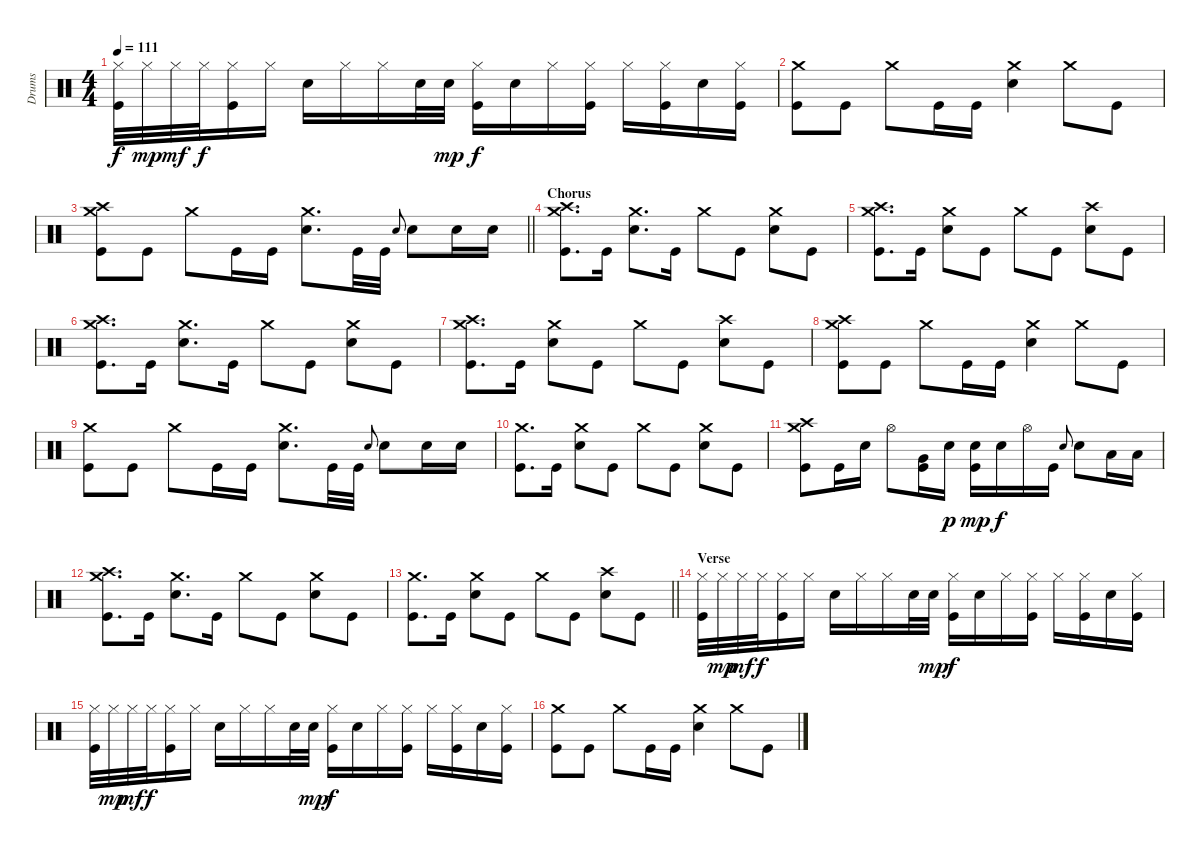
\track ("Drums" "Drums") {instrument percussion}
\staff {score}
\articulation defaults
\ts (4 4)
\tempo 111
\clef neutral
\ks c
("Hi-Hat (closed)" "Kick (hit)").32{dy f} "Hi-Hat (closed)".32{dy mp} "Hi-Hat (closed)".32{dy mf} "Hi-Hat (closed)".32{dy f} ("Hi-Hat (closed)" "Kick (hit)").16 "Hi-Hat (closed)".16 "Electric Snare (hit)".16 "Hi-Hat (closed)".16 "Hi-Hat (closed)".16 "Electric Snare (hit)".32 "Electric Snare (hit)".32{dy mp} ("Hi-Hat (closed)" "Kick (hit)").16{dy f} "Electric Snare (hit)".16 "Hi-Hat (closed)".16 ("Hi-Hat (closed)" "Kick (hit)").16 "Hi-Hat (closed)".16 ("Hi-Hat (closed)" "Kick (hit)").16 "Electric Snare (hit)".16 ("Hi-Hat (closed)" "Kick (hit)").16 |
("Crash medium (hit)" "Kick (hit)").8 "Kick (hit)".8 "Crash medium (hit)".8 "Kick (hit)".16 "Kick (hit)".16 ("Crash medium (hit)" "Electric Snare (hit)").4 "Crash medium (hit)".8 "Kick (hit)".8 |
\barLineRight lightlight
("Crash medium (hit)" "Crash high (hit)" "Kick (hit)").8 "Kick (hit)".8 "Crash medium (hit)".8 "Kick (hit)".16 "Kick (hit)".16 ("Crash medium (hit)" "Electric Snare (hit)").8{d} "Kick (hit)".32 "Kick (hit)".32 "Electric Snare (hit)".8{gr onbeat} "Electric Snare (hit)".8 "Electric Snare (hit)".16 "Electric Snare (hit)".16 |
\section ("" "Chorus")
("Crash medium (hit)" "Crash high (hit)" "Kick (hit)").8{d} "Kick (hit)".16 ("Crash medium (hit)" "Electric Snare (hit)").8{d} "Kick (hit)".16 "Crash medium (hit)".8 "Kick (hit)".8 ("Crash medium (hit)" "Electric Snare (hit)").8 "Kick (hit)".8 |
("Crash medium (hit)" "Crash high (hit)" "Kick (hit)").8{d} "Kick (hit)".16 ("Crash medium (hit)" "Electric Snare (hit)").8 "Kick (hit)".8 "Crash medium (hit)".8 "Kick (hit)".8 ("Crash high (hit)" "Electric Snare (hit)").8 "Kick (hit)".8 |
("Crash medium (hit)" "Crash high (hit)" "Kick (hit)").8{d} "Kick (hit)".16 ("Crash medium (hit)" "Electric Snare (hit)").8{d} "Kick (hit)".16 "Crash medium (hit)".8 "Kick (hit)".8 ("Crash medium (hit)" "Electric Snare (hit)").8 "Kick (hit)".8 |
("Crash medium (hit)" "Crash high (hit)" "Kick (hit)").8{d} "Kick (hit)".16 ("Crash medium (hit)" "Electric Snare (hit)").8 "Kick (hit)".8 "Crash medium (hit)".8 "Kick (hit)".8 ("Crash high (hit)" "Electric Snare (hit)").8 "Kick (hit)".8 |
("Crash medium (hit)" "Crash high (hit)" "Kick (hit)").8 "Kick (hit)".8 "Crash medium (hit)".8 "Kick (hit)".16 "Kick (hit)".16 ("Crash medium (hit)" "Electric Snare (hit)").4 "Crash medium (hit)".8 "Kick (hit)".8 |
("Crash medium (hit)" "Kick (hit)").8 "Kick (hit)".8 "Crash medium (hit)".8 "Kick (hit)".16 "Kick (hit)".16 ("Crash medium (hit)" "Electric Snare (hit)").8{d} "Kick (hit)".32 "Kick (hit)".32 "Electric Snare (hit)".8{gr onbeat} "Electric Snare (hit)".8 "Electric Snare (hit)".16 "Electric Snare (hit)".16 |
("Crash medium (hit)" "Kick (hit)").8{d} "Kick (hit)".16 ("Crash medium (hit)" "Electric Snare (hit)").8 "Kick (hit)".8 "Crash medium (hit)".8 "Kick (hit)".8 ("Crash medium (hit)" "Electric Snare (hit)").8 "Kick (hit)".8 |
("Crash medium (hit)" "Crash high (hit)" "Kick (hit)").8 "Kick (hit)".16 "Electric Snare (hit)".16 "Hi-Hat (open)".8 ("Very Low Tom (hit)" "Kick (hit)").16 "Electric Snare (hit)".16{dy p} ("Electric Snare (hit)" "Kick (hit)").16{dy mp} "Electric Snare (hit)".16{dy f} "Hi-Hat (open)".16 "Kick (hit)".16 "Electric Snare (hit)".8{gr onbeat} "Electric Snare (hit)".8 "Low Floor Tom (hit)".16 "Low Floor Tom (hit)".16 |
("Crash medium (hit)" "Crash high (hit)" "Kick (hit)").8{d} "Kick (hit)".16 ("Crash medium (hit)" "Electric Snare (hit)").8{d} "Kick (hit)".16 "Crash medium (hit)".8 "Kick (hit)".8 ("Crash medium (hit)" "Electric Snare (hit)").8 "Kick (hit)".8 |
\barLineRight lightlight
("Crash medium (hit)" "Kick (hit)").8{d} "Kick (hit)".16 ("Crash medium (hit)" "Electric Snare (hit)").8 "Kick (hit)".8 "Crash medium (hit)".8 "Kick (hit)".8 ("Crash high (hit)" "Electric Snare (hit)").8 "Kick (hit)".8 |
\section ("" "Verse")
("Hi-Hat (closed)" "Kick (hit)").32 "Hi-Hat (closed)".32{dy mp} "Hi-Hat (closed)".32{dy mf} "Hi-Hat (closed)".32{dy f} ("Hi-Hat (closed)" "Kick (hit)").16 "Hi-Hat (closed)".16 "Electric Snare (hit)".16 "Hi-Hat (closed)".16 "Hi-Hat (closed)".16 "Electric Snare (hit)".32 "Electric Snare (hit)".32{dy mp} ("Hi-Hat (closed)" "Kick (hit)").16{dy f} "Electric Snare (hit)".16 "Hi-Hat (closed)".16 ("Hi-Hat (closed)" "Kick (hit)").16 "Hi-Hat (closed)".16 ("Hi-Hat (closed)" "Kick (hit)").16 "Electric Snare (hit)".16 ("Hi-Hat (closed)" "Kick (hit)").16 |
("Hi-Hat (closed)" "Kick (hit)").32 "Hi-Hat (closed)".32{dy mp} "Hi-Hat (closed)".32{dy mf} "Hi-Hat (closed)".32{dy f} ("Hi-Hat (closed)" "Kick (hit)").16 "Hi-Hat (closed)".16 "Electric Snare (hit)".16 "Hi-Hat (closed)".16 "Hi-Hat (closed)".16 "Electric Snare (hit)".32 "Electric Snare (hit)".32{dy mp} ("Hi-Hat (closed)" "Kick (hit)").16{dy f} "Electric Snare (hit)".16 "Hi-Hat (closed)".16 ("Hi-Hat (closed)" "Kick (hit)").16 "Hi-Hat (closed)".16 ("Hi-Hat (closed)" "Kick (hit)").16 "Electric Snare (hit)".16 ("Hi-Hat (closed)" "Kick (hit)").16 |
("Crash medium (hit)" "Kick (hit)").8 "Kick (hit)".8 "Crash medium (hit)".8 "Kick (hit)".16 "Kick (hit)".16 ("Crash medium (hit)" "Electric Snare (hit)").4 "Crash medium (hit)".8 "Kick (hit)".8
